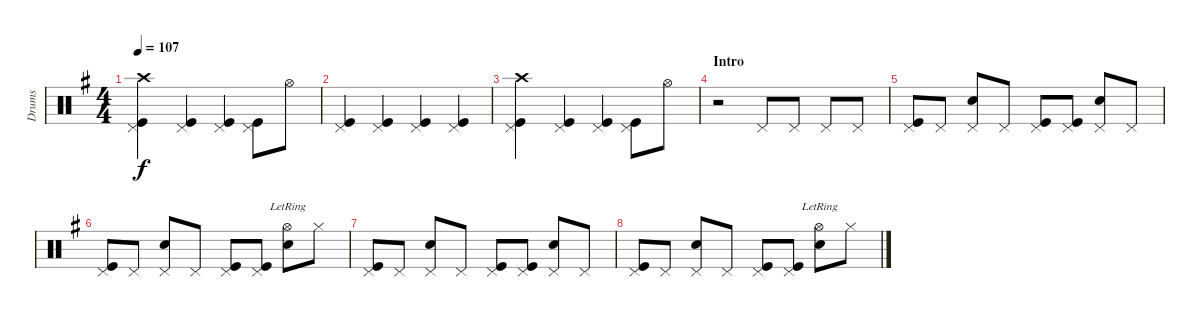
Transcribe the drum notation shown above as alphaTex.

\track ("Drums" "Drums") {instrument percussion}
\staff {score}
\articulation defaults
\ts (4 4)
\tempo 107
\clef neutral
\ks g
("Crash high (hit)" "Pedal Hi-Hat (hit)" "Kick (hit)").4{dy f} ("Pedal Hi-Hat (hit)" "Kick (hit)").4 ("Pedal Hi-Hat (hit)" "Kick (hit)").4 ("Pedal Hi-Hat (hit)" "Kick (hit)").8 "Hi-Hat (open)".8 |
("Pedal Hi-Hat (hit)" "Kick (hit)").4 ("Pedal Hi-Hat (hit)" "Kick (hit)").4 ("Pedal Hi-Hat (hit)" "Kick (hit)").4 ("Pedal Hi-Hat (hit)" "Kick (hit)").4 |
("Crash high (hit)" "Pedal Hi-Hat (hit)" "Kick (hit)").4 ("Pedal Hi-Hat (hit)" "Kick (hit)").4 ("Pedal Hi-Hat (hit)" "Kick (hit)").4 ("Pedal Hi-Hat (hit)" "Kick (hit)").8 "Hi-Hat (open)".8 |
\section ("" "Intro")
r.2{volume 13} "Pedal Hi-Hat (hit)".8 "Pedal Hi-Hat (hit)".8 "Pedal Hi-Hat (hit)".8 "Pedal Hi-Hat (hit)".8 |
("Pedal Hi-Hat (hit)" "Kick (hit)").8 "Pedal Hi-Hat (hit)".8 ("Pedal Hi-Hat (hit)" "Snare (hit) 2").8 "Pedal Hi-Hat (hit)".8 ("Pedal Hi-Hat (hit)" "Kick (hit)").8 ("Pedal Hi-Hat (hit)" "Kick (hit)").8 ("Pedal Hi-Hat (hit)" "Snare (hit) 2").8 "Pedal Hi-Hat (hit)".8 |
("Pedal Hi-Hat (hit)" "Kick (hit)").8 "Pedal Hi-Hat (hit)".8 ("Pedal Hi-Hat (hit)" "Snare (hit) 2").8 "Pedal Hi-Hat (hit)".8 ("Pedal Hi-Hat (hit)" "Kick (hit)").8 ("Pedal Hi-Hat (hit)" "Kick (hit)").8 ("Hi-Hat (open)"{lr} "Snare (hit) 2").8 "Hi-Hat (closed)".8 |
("Pedal Hi-Hat (hit)" "Kick (hit)").8 "Pedal Hi-Hat (hit)".8 ("Pedal Hi-Hat (hit)" "Snare (hit) 2").8 "Pedal Hi-Hat (hit)".8 ("Pedal Hi-Hat (hit)" "Kick (hit)").8 ("Pedal Hi-Hat (hit)" "Kick (hit)").8 ("Pedal Hi-Hat (hit)" "Snare (hit) 2").8 "Pedal Hi-Hat (hit)".8 |
("Pedal Hi-Hat (hit)" "Kick (hit)").8 "Pedal Hi-Hat (hit)".8 ("Pedal Hi-Hat (hit)" "Snare (hit) 2").8 "Pedal Hi-Hat (hit)".8 ("Pedal Hi-Hat (hit)" "Kick (hit)").8 ("Pedal Hi-Hat (hit)" "Kick (hit)").8 ("Hi-Hat (open)"{lr} "Snare (hit) 2").8 "Hi-Hat (closed)".8
